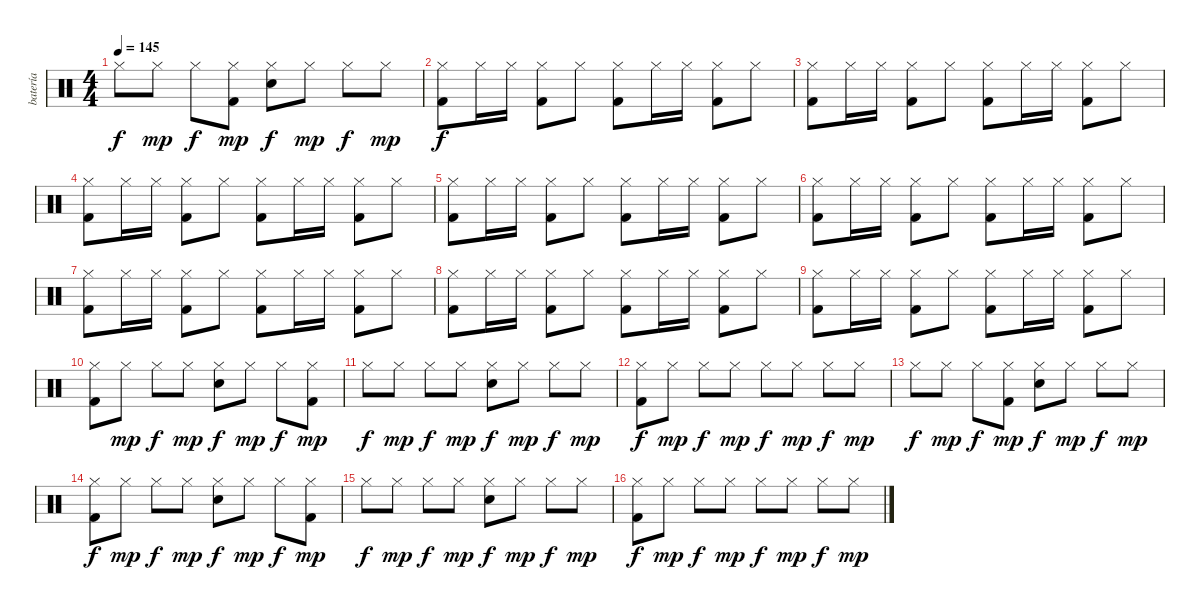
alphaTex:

\track ("batería" "batería") {instrument percussion}
\staff {score}
\articulation defaults
\ts (4 4)
\tempo 145
\clef neutral
\ks c "Hi-Hat (closed)".8{dy f} "Hi-Hat (closed)".8{dy mp} "Hi-Hat (closed)".8{dy f}
("Hi-Hat (closed)" "Kick (hit) 2").8{dy mp} ("Hi-Hat (closed)" "Electric Snare (hit)").8{dy f} "Hi-Hat (closed)".8{dy mp} "Hi-Hat (closed)".8{dy f} "Hi-Hat (closed)".8{dy mp} |
("Hi-Hat (closed)" "Kick (hit) 2").8{dy f} "Hi-Hat (closed)".16 "Hi-Hat (closed)".16 ("Hi-Hat (closed)" "Kick (hit) 2").8 "Hi-Hat (closed)".8 ("Hi-Hat (closed)" "Kick (hit) 2").8 "Hi-Hat (closed)".16 "Hi-Hat (closed)".16 ("Hi-Hat (closed)" "Kick (hit) 2").8 "Hi-Hat (closed)".8 |
("Hi-Hat (closed)" "Kick (hit) 2").8 "Hi-Hat (closed)".16 "Hi-Hat (closed)".16 ("Hi-Hat (closed)" "Kick (hit) 2").8 "Hi-Hat (closed)".8 ("Hi-Hat (closed)" "Kick (hit) 2").8 "Hi-Hat (closed)".16 "Hi-Hat (closed)".16 ("Hi-Hat (closed)" "Kick (hit) 2").8 "Hi-Hat (closed)".8 |
("Hi-Hat (closed)" "Kick (hit) 2").8 "Hi-Hat (closed)".16 "Hi-Hat (closed)".16 ("Hi-Hat (closed)" "Kick (hit) 2").8 "Hi-Hat (closed)".8 ("Hi-Hat (closed)" "Kick (hit) 2").8 "Hi-Hat (closed)".16 "Hi-Hat (closed)".16 ("Hi-Hat (closed)" "Kick (hit) 2").8 "Hi-Hat (closed)".8 |
("Hi-Hat (closed)" "Kick (hit) 2").8 "Hi-Hat (closed)".16 "Hi-Hat (closed)".16 ("Hi-Hat (closed)" "Kick (hit) 2").8 "Hi-Hat (closed)".8 ("Hi-Hat (closed)" "Kick (hit) 2").8 "Hi-Hat (closed)".16 "Hi-Hat (closed)".16 ("Hi-Hat (closed)" "Kick (hit) 2").8 "Hi-Hat (closed)".8 |
("Hi-Hat (closed)" "Kick (hit) 2").8 "Hi-Hat (closed)".16 "Hi-Hat (closed)".16 ("Hi-Hat (closed)" "Kick (hit) 2").8 "Hi-Hat (closed)".8 ("Hi-Hat (closed)" "Kick (hit) 2").8 "Hi-Hat (closed)".16 "Hi-Hat (closed)".16 ("Hi-Hat (closed)" "Kick (hit) 2").8 "Hi-Hat (closed)".8 |
("Hi-Hat (closed)" "Kick (hit) 2").8 "Hi-Hat (closed)".16 "Hi-Hat (closed)".16 ("Hi-Hat (closed)" "Kick (hit) 2").8 "Hi-Hat (closed)".8 ("Hi-Hat (closed)" "Kick (hit) 2").8 "Hi-Hat (closed)".16 "Hi-Hat (closed)".16 ("Hi-Hat (closed)" "Kick (hit) 2").8 "Hi-Hat (closed)".8 |
("Hi-Hat (closed)" "Kick (hit) 2").8 "Hi-Hat (closed)".16 "Hi-Hat (closed)".16 ("Hi-Hat (closed)" "Kick (hit) 2").8 "Hi-Hat (closed)".8 ("Hi-Hat (closed)" "Kick (hit) 2").8 "Hi-Hat (closed)".16 "Hi-Hat (closed)".16 ("Hi-Hat (closed)" "Kick (hit) 2").8 "Hi-Hat (closed)".8 |
("Hi-Hat (closed)" "Kick (hit) 2").8 "Hi-Hat (closed)".16 "Hi-Hat (closed)".16 ("Hi-Hat (closed)" "Kick (hit) 2").8 "Hi-Hat (closed)".8 ("Hi-Hat (closed)" "Kick (hit) 2").8 "Hi-Hat (closed)".16 "Hi-Hat (closed)".16 ("Hi-Hat (closed)" "Kick (hit) 2").8 "Hi-Hat (closed)".8 |
("Hi-Hat (closed)" "Kick (hit) 2").8 "Hi-Hat (closed)".8{dy mp} "Hi-Hat (closed)".8{dy f} "Hi-Hat (closed)".8{dy mp} ("Hi-Hat (closed)" "Electric Snare (hit)").8{dy f} "Hi-Hat (closed)".8{dy mp} "Hi-Hat (closed)".8{dy f} ("Hi-Hat (closed)" "Kick (hit) 2").8{dy mp} |
"Hi-Hat (closed)".8{dy f} "Hi-Hat (closed)".8{dy mp} "Hi-Hat (closed)".8{dy f} "Hi-Hat (closed)".8{dy mp} ("Hi-Hat (closed)" "Electric Snare (hit)").8{dy f} "Hi-Hat (closed)".8{dy mp} "Hi-Hat (closed)".8{dy f} "Hi-Hat (closed)".8{dy mp} |
("Hi-Hat (closed)" "Kick (hit) 2").8{dy f} "Hi-Hat (closed)".8{dy mp} "Hi-Hat (closed)".8{dy f} "Hi-Hat (closed)".8{dy mp} "Hi-Hat (closed)".8{dy f} "Hi-Hat (closed)".8{dy mp} "Hi-Hat (closed)".8{dy f} "Hi-Hat (closed)".8{dy mp} |
"Hi-Hat (closed)".8{dy f} "Hi-Hat (closed)".8{dy mp} "Hi-Hat (closed)".8{dy f} ("Hi-Hat (closed)" "Kick (hit) 2").8{dy mp} ("Hi-Hat (closed)" "Electric Snare (hit)").8{dy f} "Hi-Hat (closed)".8{dy mp} "Hi-Hat (closed)".8{dy f} "Hi-Hat (closed)".8{dy mp} |
("Hi-Hat (closed)" "Kick (hit) 2").8{dy f} "Hi-Hat (closed)".8{dy mp} "Hi-Hat (closed)".8{dy f} "Hi-Hat (closed)".8{dy mp} ("Hi-Hat (closed)" "Electric Snare (hit)").8{dy f} "Hi-Hat (closed)".8{dy mp} "Hi-Hat (closed)".8{dy f} ("Hi-Hat (closed)" "Kick (hit) 2").8{dy mp} |
"Hi-Hat (closed)".8{dy f} "Hi-Hat (closed)".8{dy mp} "Hi-Hat (closed)".8{dy f} "Hi-Hat (closed)".8{dy mp} ("Hi-Hat (closed)" "Electric Snare (hit)").8{dy f} "Hi-Hat (closed)".8{dy mp} "Hi-Hat (closed)".8{dy f} "Hi-Hat (closed)".8{dy mp} |
("Hi-Hat (closed)" "Kick (hit) 2").8{dy f} "Hi-Hat (closed)".8{dy mp} "Hi-Hat (closed)".8{dy f} "Hi-Hat (closed)".8{dy mp} "Hi-Hat (closed)".8{dy f} "Hi-Hat (closed)".8{dy mp} "Hi-Hat (closed)".8{dy f} "Hi-Hat (closed)".8{dy mp}
